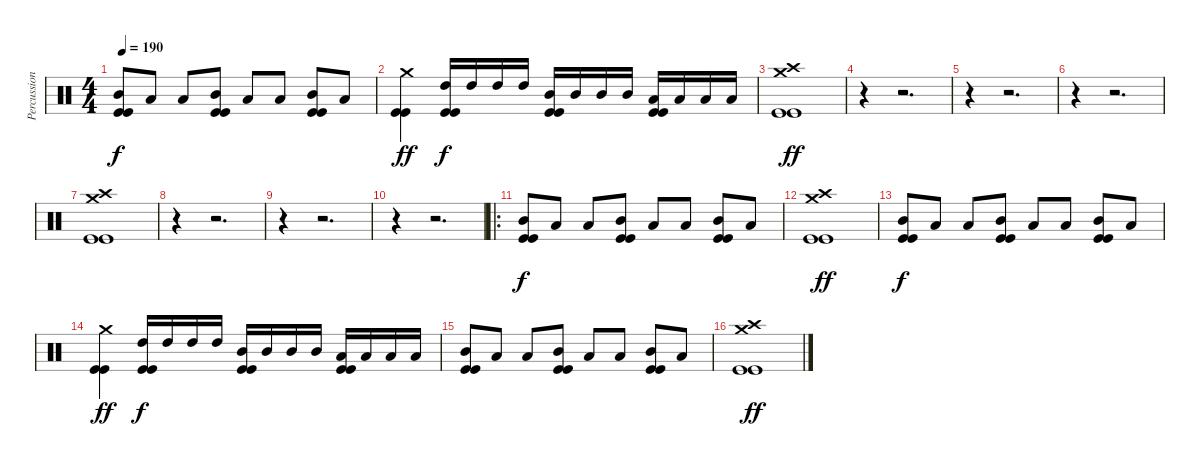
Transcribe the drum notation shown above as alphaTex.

\track ("Percussion" "Percussion") {instrument percussion}
\staff {score}
\articulation defaults
\ts (4 4)
\tempo 190
\clef neutral
\ks c
("Mid Tom (hit)" "Kick (hit)" "Kick (hit)").8{dy f} "Low Tom (hit)".8 "Low Tom (hit)".8 ("Mid Tom (hit)" "Kick (hit)" "Kick (hit)").8 "Low Tom (hit)".8 "Low Tom (hit)".8 ("Mid Tom (hit)" "Kick (hit)" "Kick (hit)").8 "Low Tom (hit)".8 |
("Crash medium (hit)" "Kick (hit)" "Kick (hit)").4{dy ff} ("High Tom (hit)" "Kick (hit)" "Kick (hit)").16{dy f} "High Tom (hit)".16 "High Tom (hit)".16 "High Tom (hit)".16 ("Mid Tom (hit)" "Kick (hit)" "Kick (hit)").16 "Mid Tom (hit)".16 "Mid Tom (hit)".16 "Mid Tom (hit)".16 ("Low Tom (hit)" "Kick (hit)" "Kick (hit)").16 "Low Tom (hit)".16 "Low Tom (hit)".16 "Low Tom (hit)".16 |
("Crash high (hit)" "Crash medium (hit)" "Kick (hit)" "Kick (hit)").1{dy ff} |
r.4 r.2{d} |
r.4 r.2{d} |
r.4 r.2{d} |
("Crash high (hit)" "Crash medium (hit)" "Kick (hit)" "Kick (hit)").1 |
r.4 r.2{d} |
r.4 r.2{d} |
r.4 r.2{d} |
\ro
("Mid Tom (hit)" "Kick (hit)" "Kick (hit)").8{dy f} "Low Tom (hit)".8 "Low Tom (hit)".8 ("Mid Tom (hit)" "Kick (hit)" "Kick (hit)").8 "Low Tom (hit)".8 "Low Tom (hit)".8 ("Mid Tom (hit)" "Kick (hit)" "Kick (hit)").8 "Low Tom (hit)".8 |
("Crash high (hit)" "Crash medium (hit)" "Kick (hit)" "Kick (hit)").1{dy ff} |
("Mid Tom (hit)" "Kick (hit)" "Kick (hit)").8{dy f} "Low Tom (hit)".8 "Low Tom (hit)".8 ("Mid Tom (hit)" "Kick (hit)" "Kick (hit)").8 "Low Tom (hit)".8 "Low Tom (hit)".8 ("Mid Tom (hit)" "Kick (hit)" "Kick (hit)").8 "Low Tom (hit)".8 |
("Crash medium (hit)" "Kick (hit)" "Kick (hit)").4{dy ff} ("High Tom (hit)" "Kick (hit)" "Kick (hit)").16{dy f} "High Tom (hit)".16 "High Tom (hit)".16 "High Tom (hit)".16 ("Mid Tom (hit)" "Kick (hit)" "Kick (hit)").16 "Mid Tom (hit)".16 "Mid Tom (hit)".16 "Mid Tom (hit)".16 ("Low Tom (hit)" "Kick (hit)" "Kick (hit)").16 "Low Tom (hit)".16 "Low Tom (hit)".16 "Low Tom (hit)".16 |
("Mid Tom (hit)" "Kick (hit)" "Kick (hit)").8 "Low Tom (hit)".8 "Low Tom (hit)".8 ("Mid Tom (hit)" "Kick (hit)" "Kick (hit)").8 "Low Tom (hit)".8 "Low Tom (hit)".8 ("Mid Tom (hit)" "Kick (hit)" "Kick (hit)").8 "Low Tom (hit)".8 |
("Crash high (hit)" "Crash medium (hit)" "Kick (hit)" "Kick (hit)").1{dy ff}
